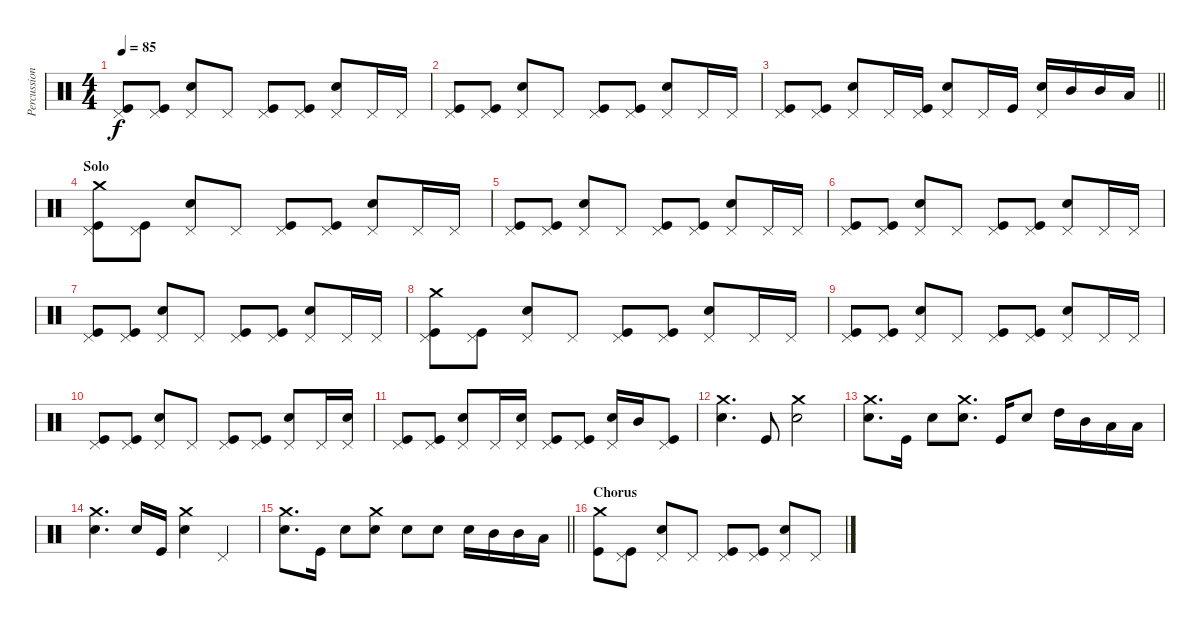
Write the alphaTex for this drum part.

\track ("Percussion" "Percussion") {instrument percussion}
\staff {score}
\articulation defaults
\ts (4 4)
\tempo 85
\clef neutral
\ks c
("Pedal Hi-Hat (hit)" "Kick (hit)").8{dy f} ("Pedal Hi-Hat (hit)" "Kick (hit)").8 ("Pedal Hi-Hat (hit)" "Snare (hit) 2").8 "Pedal Hi-Hat (hit)".8 ("Pedal Hi-Hat (hit)" "Kick (hit)").8 ("Pedal Hi-Hat (hit)" "Kick (hit)").8 ("Pedal Hi-Hat (hit)" "Snare (hit) 2").8 "Pedal Hi-Hat (hit)".16 "Pedal Hi-Hat (hit)".16 |
("Pedal Hi-Hat (hit)" "Kick (hit)").8 ("Pedal Hi-Hat (hit)" "Kick (hit)").8 ("Pedal Hi-Hat (hit)" "Snare (hit) 2").8 "Pedal Hi-Hat (hit)".8 ("Pedal Hi-Hat (hit)" "Kick (hit)").8 ("Pedal Hi-Hat (hit)" "Kick (hit)").8 ("Pedal Hi-Hat (hit)" "Snare (hit) 2").8 "Pedal Hi-Hat (hit)".16 "Pedal Hi-Hat (hit)".16 |
\barLineRight lightlight
("Pedal Hi-Hat (hit)" "Kick (hit)").8 ("Pedal Hi-Hat (hit)" "Kick (hit)").8 ("Pedal Hi-Hat (hit)" "Snare (hit) 2").8 "Pedal Hi-Hat (hit)".16 ("Pedal Hi-Hat (hit)" "Kick (hit)").16 ("Pedal Hi-Hat (hit)" "Snare (hit) 2").8 "Pedal Hi-Hat (hit)".16 "Kick (hit)".16 ("Pedal Hi-Hat (hit)" "Snare (hit) 2").16 "Mid Tom (hit)".16 "Mid Tom (hit)".16 "Low Floor Tom (hit)".16 |
\section ("" "Solo")
("Pedal Hi-Hat (hit)" "Crash medium (hit)" "Kick (hit)").8 ("Pedal Hi-Hat (hit)" "Kick (hit)").8 ("Pedal Hi-Hat (hit)" "Snare (hit) 2").8 "Pedal Hi-Hat (hit)".8 ("Pedal Hi-Hat (hit)" "Kick (hit)").8 ("Pedal Hi-Hat (hit)" "Kick (hit)").8 ("Pedal Hi-Hat (hit)" "Snare (hit) 2").8 "Pedal Hi-Hat (hit)".16 "Pedal Hi-Hat (hit)".16 |
("Pedal Hi-Hat (hit)" "Kick (hit)").8 ("Pedal Hi-Hat (hit)" "Kick (hit)").8 ("Pedal Hi-Hat (hit)" "Snare (hit) 2").8 "Pedal Hi-Hat (hit)".8 ("Pedal Hi-Hat (hit)" "Kick (hit)").8 ("Pedal Hi-Hat (hit)" "Kick (hit)").8 ("Pedal Hi-Hat (hit)" "Snare (hit) 2").8 "Pedal Hi-Hat (hit)".16 "Pedal Hi-Hat (hit)".16 |
("Pedal Hi-Hat (hit)" "Kick (hit)").8 ("Pedal Hi-Hat (hit)" "Kick (hit)").8 ("Pedal Hi-Hat (hit)" "Snare (hit) 2").8 "Pedal Hi-Hat (hit)".8 ("Pedal Hi-Hat (hit)" "Kick (hit)").8 ("Pedal Hi-Hat (hit)" "Kick (hit)").8 ("Pedal Hi-Hat (hit)" "Snare (hit) 2").8 "Pedal Hi-Hat (hit)".16 "Pedal Hi-Hat (hit)".16 |
("Pedal Hi-Hat (hit)" "Kick (hit)").8 ("Pedal Hi-Hat (hit)" "Kick (hit)").8 ("Pedal Hi-Hat (hit)" "Snare (hit) 2").8 "Pedal Hi-Hat (hit)".8 ("Pedal Hi-Hat (hit)" "Kick (hit)").8 ("Pedal Hi-Hat (hit)" "Kick (hit)").8 ("Pedal Hi-Hat (hit)" "Snare (hit) 2").8 "Pedal Hi-Hat (hit)".16 "Pedal Hi-Hat (hit)".16 |
("Pedal Hi-Hat (hit)" "Crash medium (hit)" "Kick (hit)").8 ("Pedal Hi-Hat (hit)" "Kick (hit)").8 ("Pedal Hi-Hat (hit)" "Snare (hit) 2").8 "Pedal Hi-Hat (hit)".8 ("Pedal Hi-Hat (hit)" "Kick (hit)").8 ("Pedal Hi-Hat (hit)" "Kick (hit)").8 ("Pedal Hi-Hat (hit)" "Snare (hit) 2").8 "Pedal Hi-Hat (hit)".16 "Pedal Hi-Hat (hit)".16 |
("Pedal Hi-Hat (hit)" "Kick (hit)").8 ("Pedal Hi-Hat (hit)" "Kick (hit)").8 ("Pedal Hi-Hat (hit)" "Snare (hit) 2").8 "Pedal Hi-Hat (hit)".8 ("Pedal Hi-Hat (hit)" "Kick (hit)").8 ("Pedal Hi-Hat (hit)" "Kick (hit)").8 ("Pedal Hi-Hat (hit)" "Snare (hit) 2").8 "Pedal Hi-Hat (hit)".16 "Pedal Hi-Hat (hit)".16 |
("Pedal Hi-Hat (hit)" "Kick (hit)").8 ("Pedal Hi-Hat (hit)" "Kick (hit)").8 ("Pedal Hi-Hat (hit)" "Snare (hit) 2").8 "Pedal Hi-Hat (hit)".8 ("Pedal Hi-Hat (hit)" "Kick (hit)").8 ("Pedal Hi-Hat (hit)" "Kick (hit)").8 ("Pedal Hi-Hat (hit)" "Snare (hit) 2").8 "Pedal Hi-Hat (hit)".16 ("Pedal Hi-Hat (hit)" "Snare (hit) 2").16 |
("Pedal Hi-Hat (hit)" "Kick (hit)").8 ("Pedal Hi-Hat (hit)" "Kick (hit)").8 ("Pedal Hi-Hat (hit)" "Snare (hit) 2").8 "Pedal Hi-Hat (hit)".16 ("Pedal Hi-Hat (hit)" "Snare (hit) 2").16 ("Pedal Hi-Hat (hit)" "Kick (hit)").8 ("Pedal Hi-Hat (hit)" "Kick (hit)").8 ("Pedal Hi-Hat (hit)" "Snare (hit) 2").16 "Mid Tom (hit)".16 ("Pedal Hi-Hat (hit)" "Kick (hit)").8 |
("Snare (hit) 2" "Crash medium (hit)").4{d} "Kick (hit)".8 ("Snare (hit) 2" "Crash medium (hit)").2 |
("Snare (hit) 2" "Crash medium (hit)").8{d} "Kick (hit)".16 "Snare (hit) 2".8 ("Snare (hit) 2" "Crash medium (hit)").8{d} "Kick (hit)".16 "Snare (hit) 2".8 "High Tom (hit)".16 "Mid Tom (hit)".16 "Low Floor Tom (hit)".16 "Low Floor Tom (hit)".16 |
("Snare (hit) 2" "Crash medium (hit)").4{d} "Snare (hit) 2".16 "Kick (hit)".16 ("Snare (hit) 2" "Crash medium (hit)").4 "Pedal Hi-Hat (hit)".4 |
\barLineRight lightlight
("Snare (hit) 2" "Crash medium (hit)").8{d} "Kick (hit)".16 "Snare (hit) 2".8 ("Snare (hit) 2" "Crash medium (hit)").8 "Snare (hit) 2".8 "Snare (hit) 2".8 "Snare (hit) 2".16 "Mid Tom (hit)".16 "Mid Tom (hit)".16 "Low Floor Tom (hit)".16 |
\section ("" "Chorus")
("Crash medium (hit)" "Kick (hit)").8 ("Pedal Hi-Hat (hit)" "Kick (hit)").8 ("Pedal Hi-Hat (hit)" "Snare (hit) 2").8 "Pedal Hi-Hat (hit)".8 ("Pedal Hi-Hat (hit)" "Kick (hit)").8 ("Pedal Hi-Hat (hit)" "Kick (hit)").8 ("Pedal Hi-Hat (hit)" "Snare (hit) 2").8 "Pedal Hi-Hat (hit)".8
